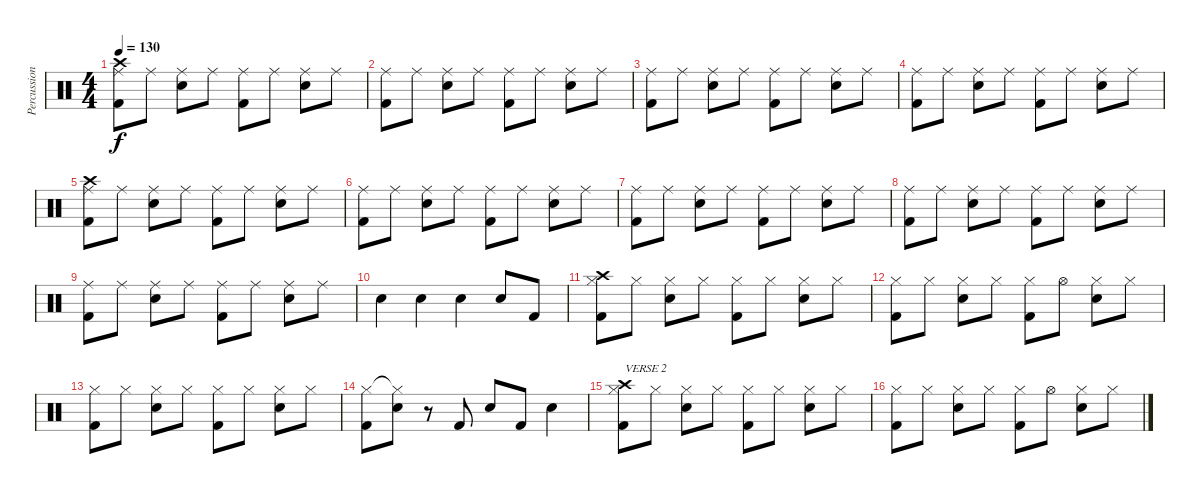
\track ("Percussion" "Percussion") {instrument percussion}
\staff {score}
\articulation defaults
\ts (4 4)
\tempo 130
\clef neutral
\ks c
("Crash high (hit)" "Ride (middle)" "Kick (hit) 2").8{dy f} "Ride (middle)".8 ("Ride (middle)" "Electric Snare (hit)").8 "Ride (middle)".8 ("Ride (middle)" "Kick (hit) 2").8 "Ride (middle)".8 ("Ride (middle)" "Electric Snare (hit)").8 "Ride (middle)".8 |
("Ride (middle)" "Kick (hit) 2").8 "Ride (middle)".8 ("Ride (middle)" "Electric Snare (hit)").8 "Ride (middle)".8 ("Ride (middle)" "Kick (hit) 2").8 "Ride (middle)".8 ("Ride (middle)" "Electric Snare (hit)").8 "Ride (middle)".8 |
("Ride (middle)" "Kick (hit) 2").8 "Ride (middle)".8 ("Ride (middle)" "Electric Snare (hit)").8 "Ride (middle)".8 ("Ride (middle)" "Kick (hit) 2").8 "Ride (middle)".8 ("Ride (middle)" "Electric Snare (hit)").8 "Ride (middle)".8 |
("Ride (middle)" "Kick (hit) 2").8 "Ride (middle)".8 ("Ride (middle)" "Electric Snare (hit)").8 "Ride (middle)".8 ("Ride (middle)" "Kick (hit) 2").8 "Ride (middle)".8 ("Ride (middle)" "Electric Snare (hit)").8 "Ride (middle)".8 |
("Crash high (hit)" "Ride (middle)" "Kick (hit) 2").8 "Ride (middle)".8 ("Ride (middle)" "Electric Snare (hit)").8 "Ride (middle)".8 ("Ride (middle)" "Kick (hit) 2").8 "Ride (middle)".8 ("Ride (middle)" "Electric Snare (hit)").8 "Ride (middle)".8 |
("Ride (middle)" "Kick (hit) 2").8 "Ride (middle)".8 ("Ride (middle)" "Electric Snare (hit)").8 "Ride (middle)".8 ("Ride (middle)" "Kick (hit) 2").8 "Ride (middle)".8 ("Ride (middle)" "Electric Snare (hit)").8 "Ride (middle)".8 |
("Ride (middle)" "Kick (hit) 2").8 "Ride (middle)".8 ("Ride (middle)" "Electric Snare (hit)").8 "Ride (middle)".8 ("Ride (middle)" "Kick (hit) 2").8 "Ride (middle)".8 ("Ride (middle)" "Electric Snare (hit)").8 "Ride (middle)".8 |
("Ride (middle)" "Kick (hit) 2").8 "Ride (middle)".8 ("Ride (middle)" "Electric Snare (hit)").8 "Ride (middle)".8 ("Ride (middle)" "Kick (hit) 2").8 "Ride (middle)".8 ("Ride (middle)" "Electric Snare (hit)").8 "Ride (middle)".8 |
("Ride (middle)" "Kick (hit) 2").8 "Ride (middle)".8 ("Ride (middle)" "Electric Snare (hit)").8 "Ride (middle)".8 ("Ride (middle)" "Kick (hit) 2").8 "Ride (middle)".8 ("Ride (middle)" "Electric Snare (hit)").8 "Ride (middle)".8 |
"Electric Snare (hit)".4 "Electric Snare (hit)".4 "Electric Snare (hit)".4 "Electric Snare (hit)".8 "Kick (hit) 2".8 |
("Crash high (hit)" "Hi-Hat (closed)" "Kick (hit) 2").8 "Hi-Hat (closed)".8 ("Hi-Hat (closed)" "Electric Snare (hit)").8 "Hi-Hat (closed)".8 ("Hi-Hat (closed)" "Kick (hit) 2").8 "Hi-Hat (closed)".8 ("Hi-Hat (closed)" "Electric Snare (hit)").8 "Hi-Hat (closed)".8 |
("Hi-Hat (closed)" "Kick (hit) 2").8 "Hi-Hat (closed)".8 ("Hi-Hat (closed)" "Electric Snare (hit)").8 "Hi-Hat (closed)".8 ("Hi-Hat (closed)" "Kick (hit) 2").8 "Hi-Hat (open)".8 ("Hi-Hat (closed)" "Electric Snare (hit)").8 "Hi-Hat (closed)".8 |
("Hi-Hat (closed)" "Kick (hit) 2").8 "Hi-Hat (closed)".8 ("Hi-Hat (closed)" "Electric Snare (hit)").8 "Hi-Hat (closed)".8 ("Hi-Hat (closed)" "Kick (hit) 2").8 "Hi-Hat (closed)".8 ("Hi-Hat (closed)" "Electric Snare (hit)").8 "Hi-Hat (closed)".8 |
("Hi-Hat (closed)" "Kick (hit) 2").8 ("Hi-Hat (closed)"{t} "Electric Snare (hit)").8 r.8 "Kick (hit) 2".8 "Electric Snare (hit)".8 "Kick (hit) 2".8 "Electric Snare (hit)".4 |
("Crash high (hit)" "Hi-Hat (closed)" "Kick (hit) 2").8{txt "VERSE 2"} "Hi-Hat (closed)".8 ("Hi-Hat (closed)" "Electric Snare (hit)").8 "Hi-Hat (closed)".8 ("Hi-Hat (closed)" "Kick (hit) 2").8 "Hi-Hat (closed)".8 ("Hi-Hat (closed)" "Electric Snare (hit)").8 "Hi-Hat (closed)".8 |
("Hi-Hat (closed)" "Kick (hit) 2").8 "Hi-Hat (closed)".8 ("Hi-Hat (closed)" "Electric Snare (hit)").8 "Hi-Hat (closed)".8 ("Hi-Hat (closed)" "Kick (hit) 2").8 "Hi-Hat (open)".8 ("Hi-Hat (closed)" "Electric Snare (hit)").8 "Hi-Hat (closed)".8
